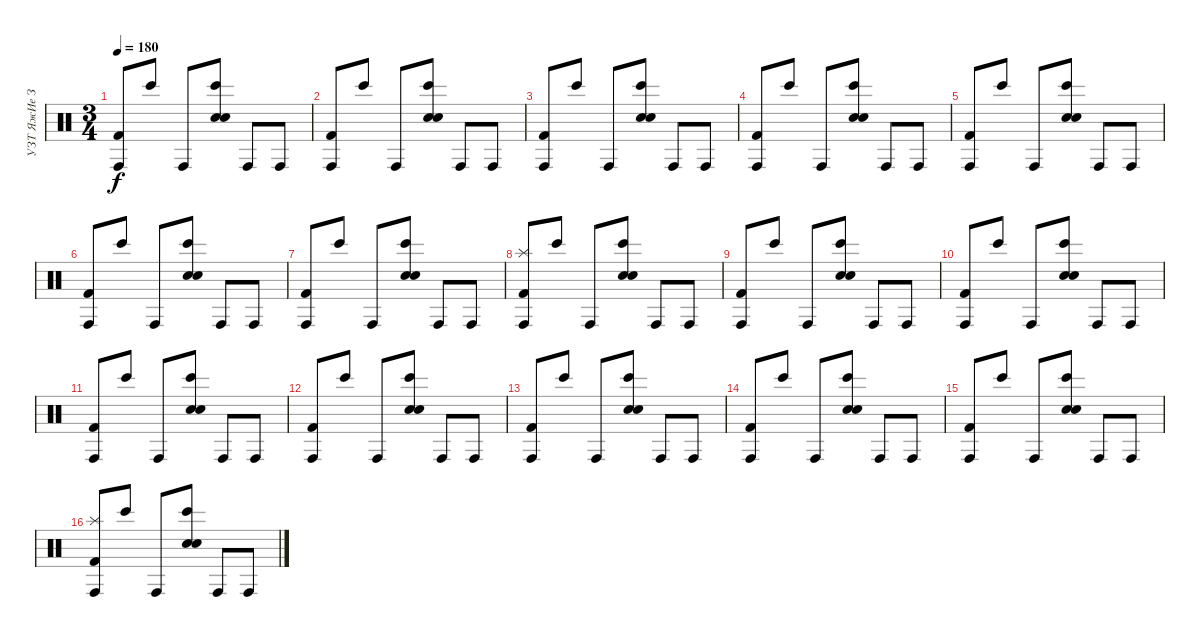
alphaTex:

\track ("УЗТ ЯжИе Зн" "УЗТ ЯжИе З") {instrument percussion}
\staff {score}
\articulation defaults
\ts (3 4)
\tempo 180
\clef neutral
\ks c
("Conga high (hit)" "Kick (hit) 2").8{dy f} "Bongo High (hit)".8 "Conga high (hit)".8 ("Bongo High (hit)" "Snare (hit) 2" "Hand Clap (hit)").8 "Conga high (hit)".8 "Conga high (hit)".8 |
("Conga high (hit)" "Kick (hit) 2").8 "Bongo High (hit)".8 "Conga high (hit)".8 ("Bongo High (hit)" "Snare (hit) 2" "Hand Clap (hit)").8 "Conga high (hit)".8 "Conga high (hit)".8 |
("Conga high (hit)" "Kick (hit) 2").8 "Bongo High (hit)".8 "Conga high (hit)".8 ("Bongo High (hit)" "Snare (hit) 2" "Hand Clap (hit)").8 "Conga high (hit)".8 "Conga high (hit)".8 |
("Conga high (hit)" "Kick (hit) 2").8 "Bongo High (hit)".8 "Conga high (hit)".8 ("Bongo High (hit)" "Snare (hit) 2" "Hand Clap (hit)").8 "Conga high (hit)".8 "Conga high (hit)".8 |
("Conga high (hit)" "Kick (hit) 2").8 "Bongo High (hit)".8 "Conga high (hit)".8 ("Bongo High (hit)" "Snare (hit) 2" "Hand Clap (hit)").8 "Conga high (hit)".8 "Conga high (hit)".8 |
("Conga high (hit)" "Kick (hit) 2").8 "Bongo High (hit)".8 "Conga high (hit)".8 ("Bongo High (hit)" "Snare (hit) 2" "Hand Clap (hit)").8 "Conga high (hit)".8 "Conga high (hit)".8 |
("Conga high (hit)" "Kick (hit) 2").8 "Bongo High (hit)".8 "Conga high (hit)".8 ("Bongo High (hit)" "Snare (hit) 2" "Hand Clap (hit)").8 "Conga high (hit)".8 "Conga high (hit)".8 |
("Conga high (hit)" "Kick (hit) 2" "Splash (hit)").8 "Bongo High (hit)".8 "Conga high (hit)".8 ("Bongo High (hit)" "Snare (hit) 2" "Hand Clap (hit)").8 "Conga high (hit)".8 "Conga high (hit)".8 |
("Conga high (hit)" "Kick (hit) 2").8 "Bongo High (hit)".8 "Conga high (hit)".8 ("Bongo High (hit)" "Snare (hit) 2" "Hand Clap (hit)").8 "Conga high (hit)".8 "Conga high (hit)".8 |
("Conga high (hit)" "Kick (hit) 2").8 "Bongo High (hit)".8 "Conga high (hit)".8 ("Bongo High (hit)" "Snare (hit) 2" "Hand Clap (hit)").8 "Conga high (hit)".8 "Conga high (hit)".8 |
("Conga high (hit)" "Kick (hit) 2").8 "Bongo High (hit)".8 "Conga high (hit)".8 ("Bongo High (hit)" "Snare (hit) 2" "Hand Clap (hit)").8 "Conga high (hit)".8 "Conga high (hit)".8 |
("Conga high (hit)" "Kick (hit) 2").8 "Bongo High (hit)".8 "Conga high (hit)".8 ("Bongo High (hit)" "Snare (hit) 2" "Hand Clap (hit)").8 "Conga high (hit)".8 "Conga high (hit)".8 |
("Conga high (hit)" "Kick (hit) 2").8 "Bongo High (hit)".8 "Conga high (hit)".8 ("Bongo High (hit)" "Snare (hit) 2" "Hand Clap (hit)").8 "Conga high (hit)".8 "Conga high (hit)".8 |
("Conga high (hit)" "Kick (hit) 2").8 "Bongo High (hit)".8 "Conga high (hit)".8 ("Bongo High (hit)" "Snare (hit) 2" "Hand Clap (hit)").8 "Conga high (hit)".8 "Conga high (hit)".8 |
("Conga high (hit)" "Kick (hit) 2").8 "Bongo High (hit)".8 "Conga high (hit)".8 ("Bongo High (hit)" "Snare (hit) 2" "Hand Clap (hit)").8 "Conga high (hit)".8 "Conga high (hit)".8 |
("Conga high (hit)" "Kick (hit) 2" "Splash (hit)").8 "Bongo High (hit)".8 "Conga high (hit)".8 ("Bongo High (hit)" "Snare (hit) 2" "Hand Clap (hit)").8 "Conga high (hit)".8 "Conga high (hit)".8
